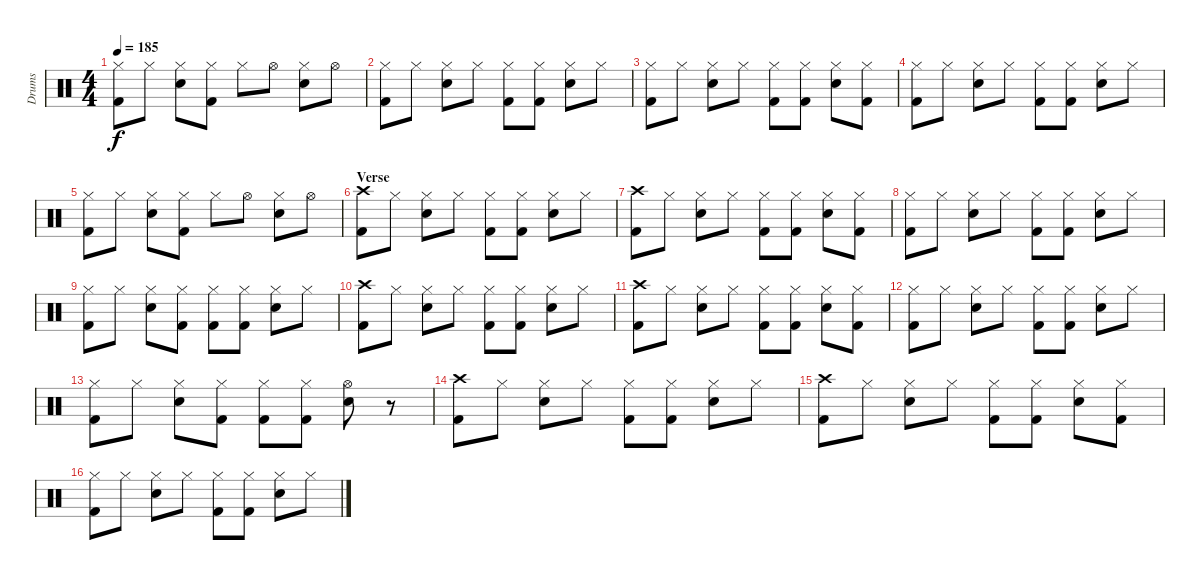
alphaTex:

\track ("Drums" "Drums") {instrument percussion}
\staff {score}
\articulation defaults
\ts (4 4)
\tempo 185
\clef neutral
\ks c
("Hi-Hat (closed)" "Kick (hit) 2").8{dy f} "Hi-Hat (closed)".8 ("Hi-Hat (closed)" "Electric Snare (hit)").8 ("Hi-Hat (closed)" "Kick (hit) 2").8 "Hi-Hat (closed)".8 "Hi-Hat (open)".8 ("Hi-Hat (closed)" "Electric Snare (hit)").8 "Hi-Hat (open)".8 |
("Hi-Hat (closed)" "Kick (hit) 2").8 "Hi-Hat (closed)".8 ("Hi-Hat (closed)" "Electric Snare (hit)").8 "Hi-Hat (closed)".8 ("Hi-Hat (closed)" "Kick (hit) 2").8 ("Hi-Hat (closed)" "Kick (hit) 2").8 ("Hi-Hat (closed)" "Electric Snare (hit)").8 "Hi-Hat (closed)".8 |
("Hi-Hat (closed)" "Kick (hit) 2").8 "Hi-Hat (closed)".8 ("Hi-Hat (closed)" "Electric Snare (hit)").8 "Hi-Hat (closed)".8 ("Hi-Hat (closed)" "Kick (hit) 2").8 ("Hi-Hat (closed)" "Kick (hit) 2").8 ("Hi-Hat (closed)" "Electric Snare (hit)").8 ("Hi-Hat (closed)" "Kick (hit) 2").8 |
("Hi-Hat (closed)" "Kick (hit) 2").8 "Hi-Hat (closed)".8 ("Hi-Hat (closed)" "Electric Snare (hit)").8 "Hi-Hat (closed)".8 ("Hi-Hat (closed)" "Kick (hit) 2").8 ("Hi-Hat (closed)" "Kick (hit) 2").8 ("Hi-Hat (closed)" "Electric Snare (hit)").8 "Hi-Hat (closed)".8 |
("Hi-Hat (closed)" "Kick (hit) 2").8 "Hi-Hat (closed)".8 ("Hi-Hat (closed)" "Electric Snare (hit)").8 ("Hi-Hat (closed)" "Kick (hit) 2").8 "Hi-Hat (closed)".8 "Hi-Hat (open)".8 ("Hi-Hat (closed)" "Electric Snare (hit)").8 "Hi-Hat (open)".8 |
\section ("" "Verse")
("Crash high (hit)" "Kick (hit) 2").8 "Hi-Hat (closed)".8 ("Hi-Hat (closed)" "Electric Snare (hit)").8 "Hi-Hat (closed)".8 ("Hi-Hat (closed)" "Kick (hit) 2").8 ("Hi-Hat (closed)" "Kick (hit) 2").8 ("Hi-Hat (closed)" "Electric Snare (hit)").8 "Hi-Hat (closed)".8 |
("Crash high (hit)" "Kick (hit) 2").8 "Hi-Hat (closed)".8 ("Hi-Hat (closed)" "Electric Snare (hit)").8 "Hi-Hat (closed)".8 ("Hi-Hat (closed)" "Kick (hit) 2").8 ("Hi-Hat (closed)" "Kick (hit) 2").8 ("Hi-Hat (closed)" "Electric Snare (hit)").8 ("Hi-Hat (closed)" "Kick (hit) 2").8 |
("Hi-Hat (closed)" "Kick (hit) 2").8 "Hi-Hat (closed)".8 ("Hi-Hat (closed)" "Electric Snare (hit)").8 "Hi-Hat (closed)".8 ("Hi-Hat (closed)" "Kick (hit) 2").8 ("Hi-Hat (closed)" "Kick (hit) 2").8 ("Hi-Hat (closed)" "Electric Snare (hit)").8 "Hi-Hat (closed)".8 |
("Hi-Hat (closed)" "Kick (hit) 2").8 "Hi-Hat (closed)".8 ("Hi-Hat (closed)" "Electric Snare (hit)").8 ("Hi-Hat (closed)" "Kick (hit) 2").8 ("Hi-Hat (closed)" "Kick (hit) 2").8 ("Hi-Hat (closed)" "Kick (hit) 2").8 ("Hi-Hat (closed)" "Electric Snare (hit)").8 "Hi-Hat (closed)".8 |
("Crash high (hit)" "Kick (hit) 2").8 "Hi-Hat (closed)".8 ("Hi-Hat (closed)" "Electric Snare (hit)").8 "Hi-Hat (closed)".8 ("Hi-Hat (closed)" "Kick (hit) 2").8 ("Hi-Hat (closed)" "Kick (hit) 2").8 ("Hi-Hat (closed)" "Electric Snare (hit)").8 "Hi-Hat (closed)".8 |
("Crash high (hit)" "Kick (hit) 2").8 "Hi-Hat (closed)".8 ("Hi-Hat (closed)" "Electric Snare (hit)").8 "Hi-Hat (closed)".8 ("Hi-Hat (closed)" "Kick (hit) 2").8 ("Hi-Hat (closed)" "Kick (hit) 2").8 ("Hi-Hat (closed)" "Electric Snare (hit)").8 ("Hi-Hat (closed)" "Kick (hit) 2").8 |
("Hi-Hat (closed)" "Kick (hit) 2").8 "Hi-Hat (closed)".8 ("Hi-Hat (closed)" "Electric Snare (hit)").8 "Hi-Hat (closed)".8 ("Hi-Hat (closed)" "Kick (hit) 2").8 ("Hi-Hat (closed)" "Kick (hit) 2").8 ("Hi-Hat (closed)" "Electric Snare (hit)").8 "Hi-Hat (closed)".8 |
("Hi-Hat (closed)" "Kick (hit) 2").8 "Hi-Hat (closed)".8 ("Hi-Hat (closed)" "Electric Snare (hit)").8 ("Hi-Hat (closed)" "Kick (hit) 2").8 ("Hi-Hat (closed)" "Kick (hit) 2").8 ("Hi-Hat (closed)" "Kick (hit) 2").8 ("Hi-Hat (open)" "Electric Snare (hit)").8 r.8 |
("Crash high (hit)" "Kick (hit) 2").8 "Hi-Hat (closed)".8 ("Hi-Hat (closed)" "Electric Snare (hit)").8 "Hi-Hat (closed)".8 ("Hi-Hat (closed)" "Kick (hit) 2").8 ("Hi-Hat (closed)" "Kick (hit) 2").8 ("Hi-Hat (closed)" "Electric Snare (hit)").8 "Hi-Hat (closed)".8 |
("Crash high (hit)" "Kick (hit) 2").8 "Hi-Hat (closed)".8 ("Hi-Hat (closed)" "Electric Snare (hit)").8 "Hi-Hat (closed)".8 ("Hi-Hat (closed)" "Kick (hit) 2").8 ("Hi-Hat (closed)" "Kick (hit) 2").8 ("Hi-Hat (closed)" "Electric Snare (hit)").8 ("Hi-Hat (closed)" "Kick (hit) 2").8 |
("Hi-Hat (closed)" "Kick (hit) 2").8 "Hi-Hat (closed)".8 ("Hi-Hat (closed)" "Electric Snare (hit)").8 "Hi-Hat (closed)".8 ("Hi-Hat (closed)" "Kick (hit) 2").8 ("Hi-Hat (closed)" "Kick (hit) 2").8 ("Hi-Hat (closed)" "Electric Snare (hit)").8 "Hi-Hat (closed)".8
